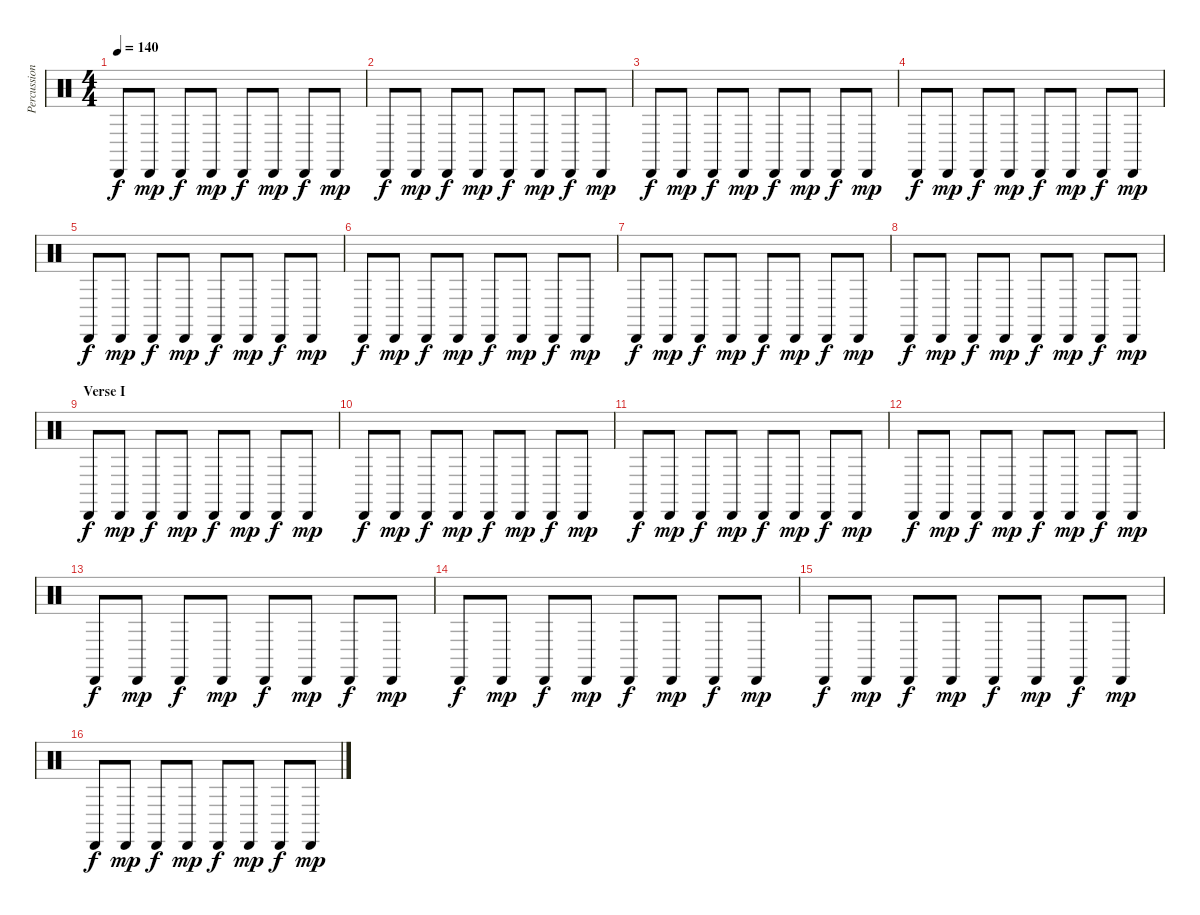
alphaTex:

\track ("Percussion" "Percussion") {instrument percussion}
\staff {score}
\articulation defaults
\ts (4 4)
\tempo 140
\clef neutral
\ks c "Cabasa (hit)".8{dy f} "Cabasa (hit)".8{dy mp} "Cabasa (hit)".8{dy f} "Cabasa (hit)".8{dy mp} "Cabasa (hit)".8{dy f} "Cabasa (hit)".8{dy mp} "Cabasa (hit)".8{dy f} "Cabasa (hit)".8{dy mp}
|
"Cabasa (hit)".8{dy f} "Cabasa (hit)".8{dy mp} "Cabasa (hit)".8{dy f} "Cabasa (hit)".8{dy mp} "Cabasa (hit)".8{dy f} "Cabasa (hit)".8{dy mp} "Cabasa (hit)".8{dy f} "Cabasa (hit)".8{dy mp} |
"Cabasa (hit)".8{dy f} "Cabasa (hit)".8{dy mp} "Cabasa (hit)".8{dy f} "Cabasa (hit)".8{dy mp} "Cabasa (hit)".8{dy f} "Cabasa (hit)".8{dy mp} "Cabasa (hit)".8{dy f} "Cabasa (hit)".8{dy mp} |
"Cabasa (hit)".8{dy f} "Cabasa (hit)".8{dy mp} "Cabasa (hit)".8{dy f} "Cabasa (hit)".8{dy mp} "Cabasa (hit)".8{dy f} "Cabasa (hit)".8{dy mp} "Cabasa (hit)".8{dy f} "Cabasa (hit)".8{dy mp} |
"Cabasa (hit)".8{dy f} "Cabasa (hit)".8{dy mp} "Cabasa (hit)".8{dy f} "Cabasa (hit)".8{dy mp} "Cabasa (hit)".8{dy f} "Cabasa (hit)".8{dy mp} "Cabasa (hit)".8{dy f} "Cabasa (hit)".8{dy mp} |
"Cabasa (hit)".8{dy f} "Cabasa (hit)".8{dy mp} "Cabasa (hit)".8{dy f} "Cabasa (hit)".8{dy mp} "Cabasa (hit)".8{dy f} "Cabasa (hit)".8{dy mp} "Cabasa (hit)".8{dy f} "Cabasa (hit)".8{dy mp} |
"Cabasa (hit)".8{dy f} "Cabasa (hit)".8{dy mp} "Cabasa (hit)".8{dy f} "Cabasa (hit)".8{dy mp} "Cabasa (hit)".8{dy f} "Cabasa (hit)".8{dy mp} "Cabasa (hit)".8{dy f} "Cabasa (hit)".8{dy mp} |
"Cabasa (hit)".8{dy f} "Cabasa (hit)".8{dy mp} "Cabasa (hit)".8{dy f} "Cabasa (hit)".8{dy mp} "Cabasa (hit)".8{dy f} "Cabasa (hit)".8{dy mp} "Cabasa (hit)".8{dy f} "Cabasa (hit)".8{dy mp} |
\section ("" "Verse I")
"Cabasa (hit)".8{dy f} "Cabasa (hit)".8{dy mp} "Cabasa (hit)".8{dy f} "Cabasa (hit)".8{dy mp} "Cabasa (hit)".8{dy f} "Cabasa (hit)".8{dy mp} "Cabasa (hit)".8{dy f} "Cabasa (hit)".8{dy mp} |
"Cabasa (hit)".8{dy f} "Cabasa (hit)".8{dy mp} "Cabasa (hit)".8{dy f} "Cabasa (hit)".8{dy mp} "Cabasa (hit)".8{dy f} "Cabasa (hit)".8{dy mp} "Cabasa (hit)".8{dy f} "Cabasa (hit)".8{dy mp} |
"Cabasa (hit)".8{dy f} "Cabasa (hit)".8{dy mp} "Cabasa (hit)".8{dy f} "Cabasa (hit)".8{dy mp} "Cabasa (hit)".8{dy f} "Cabasa (hit)".8{dy mp} "Cabasa (hit)".8{dy f} "Cabasa (hit)".8{dy mp} |
"Cabasa (hit)".8{dy f} "Cabasa (hit)".8{dy mp} "Cabasa (hit)".8{dy f} "Cabasa (hit)".8{dy mp} "Cabasa (hit)".8{dy f} "Cabasa (hit)".8{dy mp} "Cabasa (hit)".8{dy f} "Cabasa (hit)".8{dy mp} |
"Cabasa (hit)".8{dy f} "Cabasa (hit)".8{dy mp} "Cabasa (hit)".8{dy f} "Cabasa (hit)".8{dy mp} "Cabasa (hit)".8{dy f} "Cabasa (hit)".8{dy mp} "Cabasa (hit)".8{dy f} "Cabasa (hit)".8{dy mp} |
"Cabasa (hit)".8{dy f} "Cabasa (hit)".8{dy mp} "Cabasa (hit)".8{dy f} "Cabasa (hit)".8{dy mp} "Cabasa (hit)".8{dy f} "Cabasa (hit)".8{dy mp} "Cabasa (hit)".8{dy f} "Cabasa (hit)".8{dy mp} |
"Cabasa (hit)".8{dy f} "Cabasa (hit)".8{dy mp} "Cabasa (hit)".8{dy f} "Cabasa (hit)".8{dy mp} "Cabasa (hit)".8{dy f} "Cabasa (hit)".8{dy mp} "Cabasa (hit)".8{dy f} "Cabasa (hit)".8{dy mp} |
"Cabasa (hit)".8{dy f} "Cabasa (hit)".8{dy mp} "Cabasa (hit)".8{dy f} "Cabasa (hit)".8{dy mp} "Cabasa (hit)".8{dy f} "Cabasa (hit)".8{dy mp} "Cabasa (hit)".8{dy f} "Cabasa (hit)".8{dy mp}
